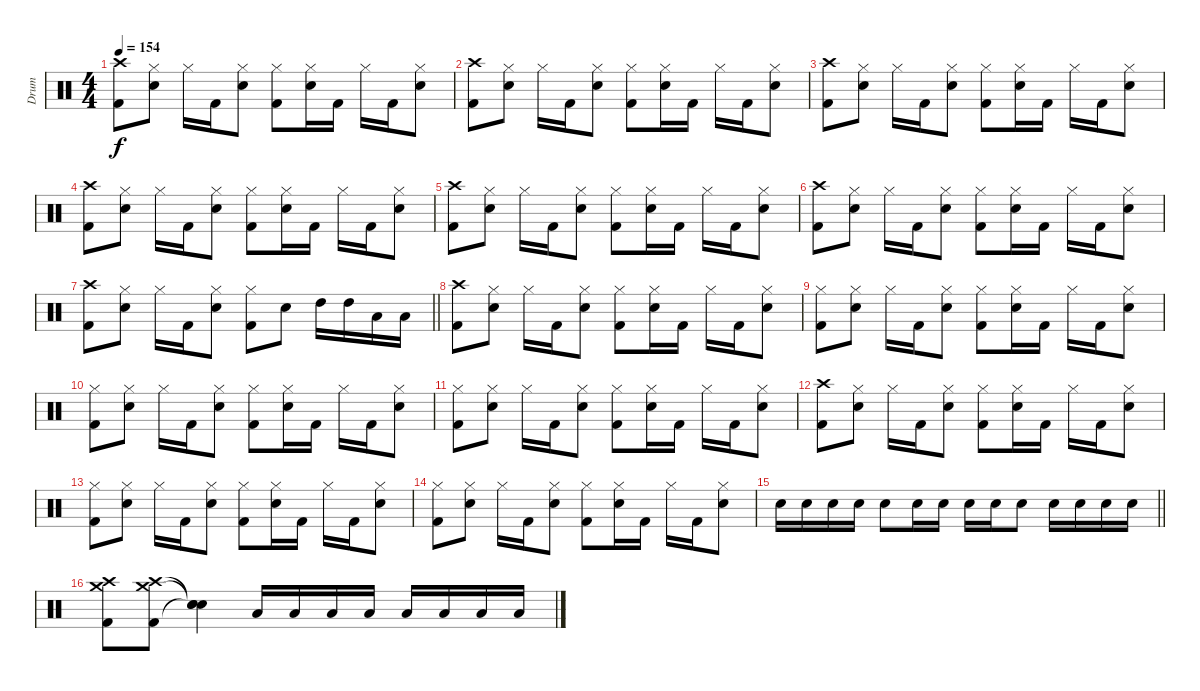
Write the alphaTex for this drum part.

\track ("Drum" "Drum") {instrument percussion}
\staff {score}
\articulation defaults
\ts (4 4)
\tempo 154
\clef neutral
\ks c
("Crash high (hit)" "Kick (hit) 2").8{dy f} ("Hi-Hat (closed)" "Snare (hit) 2").8 "Hi-Hat (closed)".16 "Kick (hit) 2".16 ("Hi-Hat (closed)" "Snare (hit) 2").8 ("Hi-Hat (closed)" "Kick (hit) 2").8 ("Hi-Hat (closed)" "Snare (hit) 2").16 "Kick (hit) 2".16 "Hi-Hat (closed)".16 "Kick (hit) 2".16 ("Hi-Hat (closed)" "Snare (hit) 2").8 |
("Crash high (hit)" "Kick (hit) 2").8 ("Hi-Hat (closed)" "Snare (hit) 2").8 "Hi-Hat (closed)".16 "Kick (hit) 2".16 ("Hi-Hat (closed)" "Snare (hit) 2").8 ("Hi-Hat (closed)" "Kick (hit) 2").8 ("Hi-Hat (closed)" "Snare (hit) 2").16 "Kick (hit) 2".16 "Hi-Hat (closed)".16 "Kick (hit) 2".16 ("Hi-Hat (closed)" "Snare (hit) 2").8 |
("Crash high (hit)" "Kick (hit) 2").8 ("Hi-Hat (closed)" "Snare (hit) 2").8 "Hi-Hat (closed)".16 "Kick (hit) 2".16 ("Hi-Hat (closed)" "Snare (hit) 2").8 ("Hi-Hat (closed)" "Kick (hit) 2").8 ("Hi-Hat (closed)" "Snare (hit) 2").16 "Kick (hit) 2".16 "Hi-Hat (closed)".16 "Kick (hit) 2".16 ("Hi-Hat (closed)" "Snare (hit) 2").8 |
("Crash high (hit)" "Kick (hit) 2").8 ("Hi-Hat (closed)" "Snare (hit) 2").8 "Hi-Hat (closed)".16 "Kick (hit) 2".16 ("Hi-Hat (closed)" "Snare (hit) 2").8 ("Hi-Hat (closed)" "Kick (hit) 2").8 ("Hi-Hat (closed)" "Snare (hit) 2").16 "Kick (hit) 2".16 "Hi-Hat (closed)".16 "Kick (hit) 2".16 ("Hi-Hat (closed)" "Snare (hit) 2").8 |
("Crash high (hit)" "Kick (hit) 2").8 ("Hi-Hat (closed)" "Snare (hit) 2").8 "Hi-Hat (closed)".16 "Kick (hit) 2".16 ("Hi-Hat (closed)" "Snare (hit) 2").8 ("Hi-Hat (closed)" "Kick (hit) 2").8 ("Hi-Hat (closed)" "Snare (hit) 2").16 "Kick (hit) 2".16 "Hi-Hat (closed)".16 "Kick (hit) 2".16 ("Hi-Hat (closed)" "Snare (hit) 2").8 |
("Crash high (hit)" "Kick (hit) 2").8 ("Hi-Hat (closed)" "Snare (hit) 2").8 "Hi-Hat (closed)".16 "Kick (hit) 2".16 ("Hi-Hat (closed)" "Snare (hit) 2").8 ("Hi-Hat (closed)" "Kick (hit) 2").8 ("Hi-Hat (closed)" "Snare (hit) 2").16 "Kick (hit) 2".16 "Hi-Hat (closed)".16 "Kick (hit) 2".16 ("Hi-Hat (closed)" "Snare (hit) 2").8 |
\barLineRight lightlight
("Crash high (hit)" "Kick (hit) 2").8 ("Hi-Hat (closed)" "Snare (hit) 2").8 "Hi-Hat (closed)".16 "Kick (hit) 2".16 ("Hi-Hat (closed)" "Snare (hit) 2").8 ("Hi-Hat (closed)" "Kick (hit) 2").8 "Snare (hit) 2".8 "High Tom (hit)".16 "High Tom (hit)".16 "Low Tom (hit)".16 "Low Tom (hit)".16 |
("Crash high (hit)" "Kick (hit) 2").8 ("Hi-Hat (closed)" "Snare (hit) 2").8 "Hi-Hat (closed)".16 "Kick (hit) 2".16 ("Hi-Hat (closed)" "Snare (hit) 2").8 ("Hi-Hat (closed)" "Kick (hit) 2").8 ("Hi-Hat (closed)" "Snare (hit) 2").16 "Kick (hit) 2".16 "Hi-Hat (closed)".16 "Kick (hit) 2".16 ("Hi-Hat (closed)" "Snare (hit) 2").8 |
("Hi-Hat (closed)" "Kick (hit) 2").8 ("Hi-Hat (closed)" "Snare (hit) 2").8 "Hi-Hat (closed)".16 "Kick (hit) 2".16 ("Hi-Hat (closed)" "Snare (hit) 2").8 ("Hi-Hat (closed)" "Kick (hit) 2").8 ("Hi-Hat (closed)" "Snare (hit) 2").16 "Kick (hit) 2".16 "Hi-Hat (closed)".16 "Kick (hit) 2".16 ("Hi-Hat (closed)" "Snare (hit) 2").8 |
("Hi-Hat (closed)" "Kick (hit) 2").8 ("Hi-Hat (closed)" "Snare (hit) 2").8 "Hi-Hat (closed)".16 "Kick (hit) 2".16 ("Hi-Hat (closed)" "Snare (hit) 2").8 ("Hi-Hat (closed)" "Kick (hit) 2").8 ("Hi-Hat (closed)" "Snare (hit) 2").16 "Kick (hit) 2".16 "Hi-Hat (closed)".16 "Kick (hit) 2".16 ("Hi-Hat (closed)" "Snare (hit) 2").8 |
("Hi-Hat (closed)" "Kick (hit) 2").8 ("Hi-Hat (closed)" "Snare (hit) 2").8 "Hi-Hat (closed)".16 "Kick (hit) 2".16 ("Hi-Hat (closed)" "Snare (hit) 2").8 ("Hi-Hat (closed)" "Kick (hit) 2").8 ("Hi-Hat (closed)" "Snare (hit) 2").16 "Kick (hit) 2".16 "Hi-Hat (closed)".16 "Kick (hit) 2".16 ("Hi-Hat (closed)" "Snare (hit) 2").8 |
("Crash high (hit)" "Kick (hit) 2").8 ("Hi-Hat (closed)" "Snare (hit) 2").8 "Hi-Hat (closed)".16 "Kick (hit) 2".16 ("Hi-Hat (closed)" "Snare (hit) 2").8 ("Hi-Hat (closed)" "Kick (hit) 2").8 ("Hi-Hat (closed)" "Snare (hit) 2").16 "Kick (hit) 2".16 "Hi-Hat (closed)".16 "Kick (hit) 2".16 ("Hi-Hat (closed)" "Snare (hit) 2").8 |
("Hi-Hat (closed)" "Kick (hit) 2").8 ("Hi-Hat (closed)" "Snare (hit) 2").8 "Hi-Hat (closed)".16 "Kick (hit) 2".16 ("Hi-Hat (closed)" "Snare (hit) 2").8 ("Hi-Hat (closed)" "Kick (hit) 2").8 ("Hi-Hat (closed)" "Snare (hit) 2").16 "Kick (hit) 2".16 "Hi-Hat (closed)".16 "Kick (hit) 2".16 ("Hi-Hat (closed)" "Snare (hit) 2").8 |
("Hi-Hat (closed)" "Kick (hit) 2").8 ("Hi-Hat (closed)" "Snare (hit) 2").8 "Hi-Hat (closed)".16 "Kick (hit) 2".16 ("Hi-Hat (closed)" "Snare (hit) 2").8 ("Hi-Hat (closed)" "Kick (hit) 2").8 ("Hi-Hat (closed)" "Snare (hit) 2").16 "Kick (hit) 2".16 "Hi-Hat (closed)".16 "Kick (hit) 2".16 ("Hi-Hat (closed)" "Snare (hit) 2").8 |
\barLineRight lightlight "Snare (hit) 2".16 "Snare (hit) 2".16 "Snare (hit) 2".16 "Snare (hit) 2".16 "Snare (hit) 2".8 "Snare (hit) 2".16 "Snare (hit) 2".16 "Snare (hit) 2".16 "Snare (hit) 2".16 "Snare (hit) 2".8 "Snare (hit) 2".16 "Snare (hit) 2".16 "Snare (hit) 2".16 "Snare (hit) 2".16
|
("Crash medium (hit)" "Crash high (hit)" "Kick (hit) 2").8 ("Crash medium (hit)" "Crash high (hit)" "Kick (hit) 2").8 ("Snare (hit)"{t} "Snare (hit)"{t} "Snare (hit)"{t}).4 "Low Floor Tom (hit)".16 "Low Floor Tom (hit)".16 "Low Floor Tom (hit)".16 "Low Floor Tom (hit)".16 "Low Floor Tom (hit)".16 "Low Floor Tom (hit)".16 "Low Floor Tom (hit)".16 "Low Floor Tom (hit)".16
